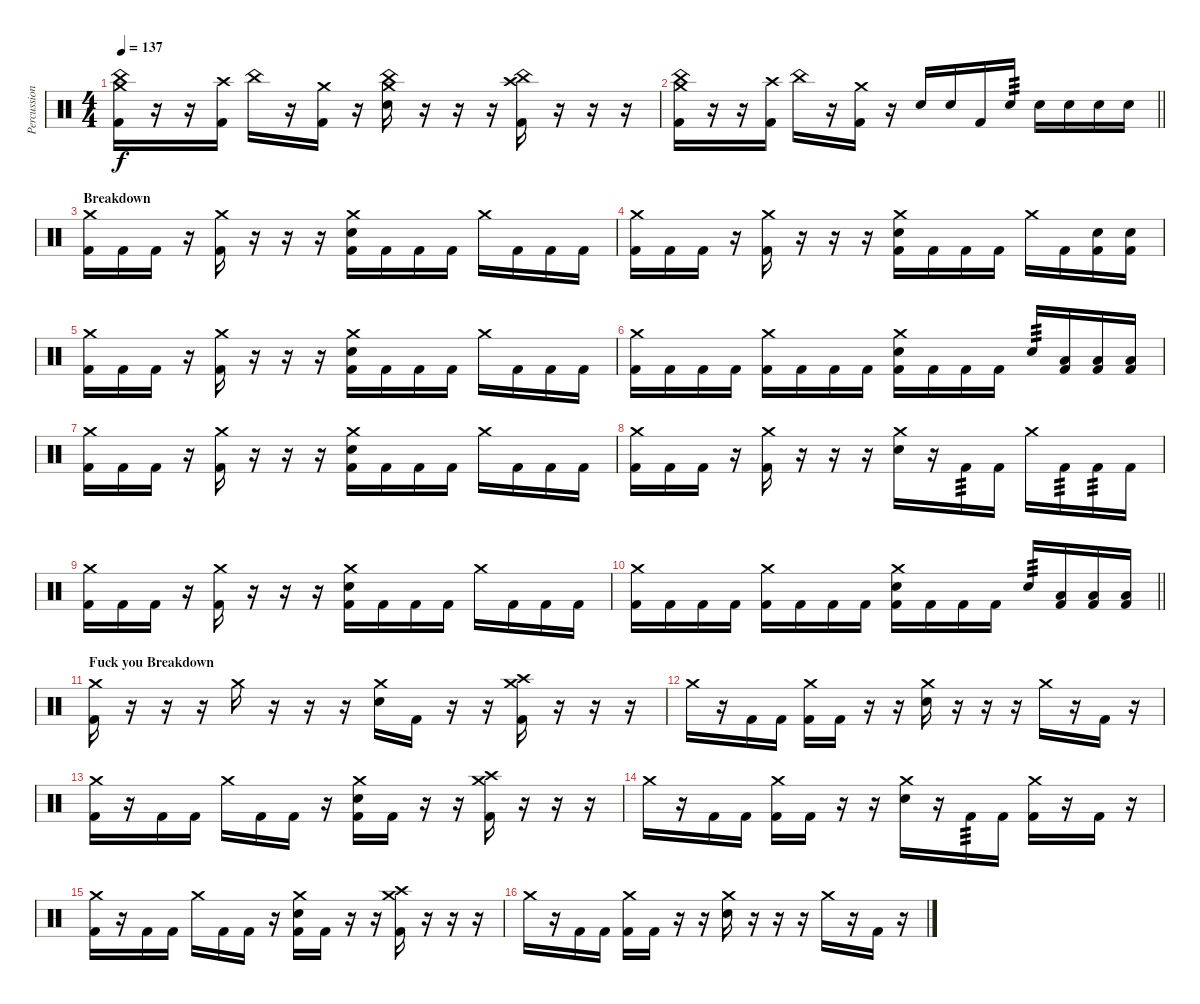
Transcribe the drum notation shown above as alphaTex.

\track ("Percussion" "Percussion") {instrument percussion}
\staff {score}
\articulation defaults
\ts (4 4)
\tempo 137
\clef neutral
\ks c
("China (hit)" "Crash medium (hit)" "Kick (hit) 2").16{dy f} r.16 r.16 ("Crash high (hit)" "Kick (hit) 2").16 "China (hit)".16 r.16 ("Crash medium (hit)" "Kick (hit) 2").16 r.16 ("China (hit)" "Crash medium (hit)" "Electric Snare (hit)").16 r.16 r.16 r.16 ("China (hit)" "Crash high (hit)" "Kick (hit) 2").16 r.16 r.16 r.16 |
\barLineRight lightlight
("China (hit)" "Crash medium (hit)" "Kick (hit) 2").16 r.16 r.16 ("Crash high (hit)" "Kick (hit) 2").16 "China (hit)".16 r.16 ("Crash medium (hit)" "Kick (hit) 2").16 r.16 "Electric Snare (hit)".16 "Electric Snare (hit)".16 "Kick (hit) 2".16 "Electric Snare (hit)".16{tp 3} "Electric Snare (hit)".16 "Electric Snare (hit)".16 "Electric Snare (hit)".16 "Electric Snare (hit)".16 |
\section ("" "Breakdown")
("Crash medium (hit)" "Kick (hit) 2").16 "Kick (hit) 2".16 "Kick (hit) 2".16 r.16 ("Crash medium (hit)" "Kick (hit) 2").16 r.16 r.16 r.16 ("Crash medium (hit)" "Electric Snare (hit)" "Kick (hit) 2").16 "Kick (hit) 2".16 "Kick (hit) 2".16 "Kick (hit) 2".16 "Crash medium (hit)".16 "Kick (hit) 2".16 "Kick (hit) 2".16 "Kick (hit) 2".16 |
("Crash medium (hit)" "Kick (hit) 2").16 "Kick (hit) 2".16 "Kick (hit) 2".16 r.16 ("Crash medium (hit)" "Kick (hit) 2").16 r.16 r.16 r.16 ("Crash medium (hit)" "Electric Snare (hit)" "Kick (hit) 2").16 "Kick (hit) 2".16 "Kick (hit) 2".16 "Kick (hit) 2".16 "Crash medium (hit)".16 "Kick (hit) 2".16 ("Electric Snare (hit)" "Kick (hit) 2").16 ("Electric Snare (hit)" "Kick (hit) 2").16 |
("Crash medium (hit)" "Kick (hit) 2").16 "Kick (hit) 2".16 "Kick (hit) 2".16 r.16 ("Crash medium (hit)" "Kick (hit) 2").16 r.16 r.16 r.16 ("Crash medium (hit)" "Electric Snare (hit)" "Kick (hit) 2").16 "Kick (hit) 2".16 "Kick (hit) 2".16 "Kick (hit) 2".16 "Crash medium (hit)".16 "Kick (hit) 2".16 "Kick (hit) 2".16 "Kick (hit) 2".16 |
("Crash medium (hit)" "Kick (hit) 2").16 "Kick (hit) 2".16 "Kick (hit) 2".16 "Kick (hit) 2".16 ("Crash medium (hit)" "Kick (hit) 2").16 "Kick (hit) 2".16 "Kick (hit) 2".16 "Kick (hit) 2".16 ("Crash medium (hit)" "Electric Snare (hit)" "Kick (hit) 2").16 "Kick (hit) 2".16 "Kick (hit) 2".16 "Kick (hit) 2".16 "Electric Snare (hit)".16{tp 3} ("Low Tom (hit)" "Kick (hit) 2").16 ("Low Tom (hit)" "Kick (hit) 2").16 ("Low Tom (hit)" "Kick (hit) 2").16 |
("Crash medium (hit)" "Kick (hit) 2").16 "Kick (hit) 2".16 "Kick (hit) 2".16 r.16 ("Crash medium (hit)" "Kick (hit) 2").16 r.16 r.16 r.16 ("Crash medium (hit)" "Electric Snare (hit)" "Kick (hit) 2").16 "Kick (hit) 2".16 "Kick (hit) 2".16 "Kick (hit) 2".16 "Crash medium (hit)".16 "Kick (hit) 2".16 "Kick (hit) 2".16 "Kick (hit) 2".16 |
("Crash medium (hit)" "Kick (hit) 2").16 "Kick (hit) 2".16 "Kick (hit) 2".16 r.16 ("Crash medium (hit)" "Kick (hit) 2").16 r.16 r.16 r.16 ("Crash medium (hit)" "Electric Snare (hit)").16 r.16 "Kick (hit) 2".16{tp 3} "Kick (hit) 2".16 "Crash medium (hit)".16 "Kick (hit) 2".16{tp 3} "Kick (hit) 2".16{tp 3} "Kick (hit) 2".16 |
("Crash medium (hit)" "Kick (hit) 2").16 "Kick (hit) 2".16 "Kick (hit) 2".16 r.16 ("Crash medium (hit)" "Kick (hit) 2").16 r.16 r.16 r.16 ("Crash medium (hit)" "Electric Snare (hit)" "Kick (hit) 2").16 "Kick (hit) 2".16 "Kick (hit) 2".16 "Kick (hit) 2".16 "Crash medium (hit)".16 "Kick (hit) 2".16 "Kick (hit) 2".16 "Kick (hit) 2".16 |
\barLineRight lightlight
("Crash medium (hit)" "Kick (hit) 2").16 "Kick (hit) 2".16 "Kick (hit) 2".16 "Kick (hit) 2".16 ("Crash medium (hit)" "Kick (hit) 2").16 "Kick (hit) 2".16 "Kick (hit) 2".16 "Kick (hit) 2".16 ("Crash medium (hit)" "Electric Snare (hit)" "Kick (hit) 2").16 "Kick (hit) 2".16 "Kick (hit) 2".16 "Kick (hit) 2".16 "Electric Snare (hit)".16{tp 3} ("Low Tom (hit)" "Kick (hit) 2").16 ("Low Tom (hit)" "Kick (hit) 2").16 ("Low Tom (hit)" "Kick (hit) 2").16 |
\section ("" "Fuck you Breakdown")
("Crash medium (hit)" "Kick (hit) 2").16 r.16 r.16 r.16 "Crash medium (hit)".16 r.16 r.16 r.16 ("Crash medium (hit)" "Electric Snare (hit)").16 "Kick (hit) 2".16 r.16 r.16 ("Crash high (hit)" "Crash medium (hit)" "Kick (hit) 2").16 r.16 r.16 r.16 |
"Crash medium (hit)".16 r.16 "Kick (hit) 2".16 "Kick (hit) 2".16 ("Crash medium (hit)" "Kick (hit) 2").16 "Kick (hit) 2".16 r.16 r.16 ("Crash medium (hit)" "Electric Snare (hit)").16 r.16 r.16 r.16 "Crash medium (hit)".16 r.16 "Kick (hit) 2".16 r.16 |
("Crash medium (hit)" "Kick (hit) 2").16 r.16 "Kick (hit) 2".16 "Kick (hit) 2".16 "Crash medium (hit)".16 "Kick (hit) 2".16 "Kick (hit) 2".16 r.16 ("Crash medium (hit)" "Electric Snare (hit)" "Kick (hit) 2").16 "Kick (hit) 2".16 r.16 r.16 ("Crash medium (hit)" "Crash high (hit)" "Kick (hit) 2").16 r.16 r.16 r.16 |
"Crash medium (hit)".16 r.16 "Kick (hit) 2".16 "Kick (hit) 2".16 ("Crash medium (hit)" "Kick (hit) 2").16 "Kick (hit) 2".16 r.16 r.16 ("Crash medium (hit)" "Electric Snare (hit)").16 r.16 "Kick (hit) 2".16{tp 3} "Kick (hit) 2".16 ("Crash medium (hit)" "Kick (hit) 2").16 r.16 "Kick (hit) 2".16 r.16 |
("Crash medium (hit)" "Kick (hit) 2").16 r.16 "Kick (hit) 2".16 "Kick (hit) 2".16 "Crash medium (hit)".16 "Kick (hit) 2".16 "Kick (hit) 2".16 r.16 ("Crash medium (hit)" "Electric Snare (hit)" "Kick (hit) 2").16 "Kick (hit) 2".16 r.16 r.16 ("Crash medium (hit)" "Crash high (hit)" "Kick (hit) 2").16 r.16 r.16 r.16 |
"Crash medium (hit)".16 r.16 "Kick (hit) 2".16 "Kick (hit) 2".16 ("Crash medium (hit)" "Kick (hit) 2").16 "Kick (hit) 2".16 r.16 r.16 ("Crash medium (hit)" "Electric Snare (hit)").16 r.16 r.16 r.16 "Crash medium (hit)".16 r.16 "Kick (hit) 2".16 r.16
